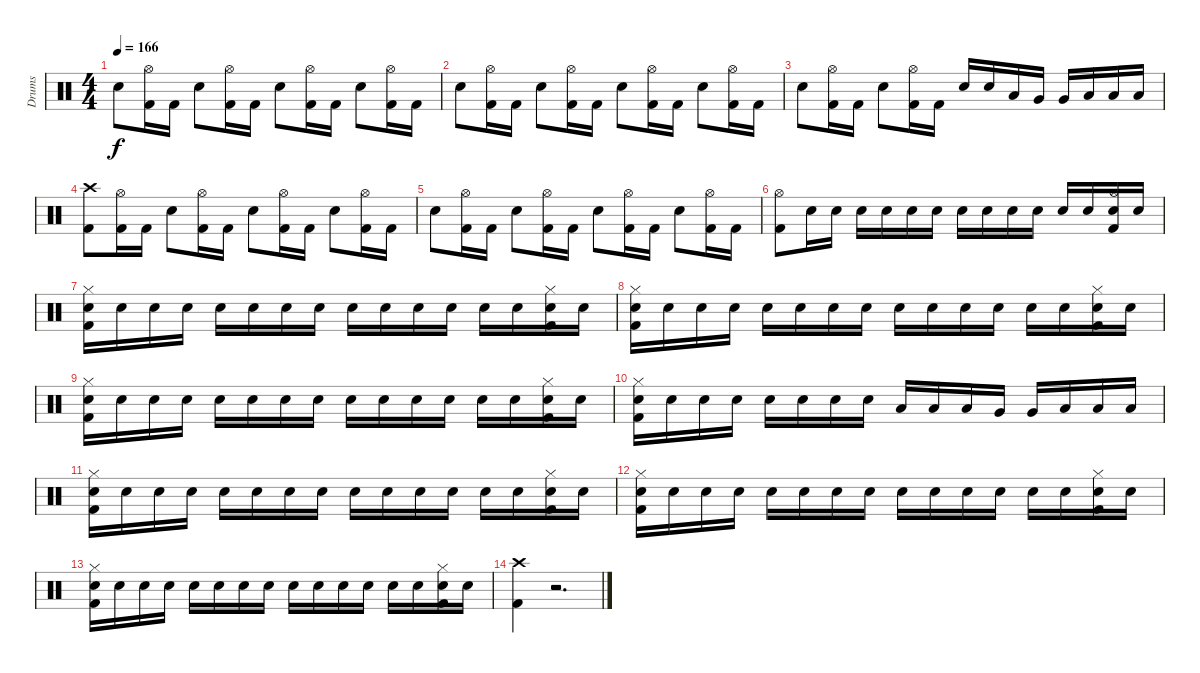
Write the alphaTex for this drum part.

\track ("Drums" "Drums") {instrument percussion}
\staff {score}
\articulation defaults
\ts (4 4)
\tempo 166
\clef neutral
\ks c "Electric Snare (hit)".8{dy f}
("Hi-Hat (open)" "Kick (hit) 2").16 "Kick (hit) 2".16 "Electric Snare (hit)".8 ("Hi-Hat (open)" "Kick (hit) 2").16 "Kick (hit) 2".16 "Electric Snare (hit)".8 ("Hi-Hat (open)" "Kick (hit) 2").16 "Kick (hit) 2".16 "Electric Snare (hit)".8 ("Hi-Hat (open)" "Kick (hit) 2").16 "Kick (hit) 2".16 |
"Electric Snare (hit)".8 ("Hi-Hat (open)" "Kick (hit) 2").16 "Kick (hit) 2".16 "Electric Snare (hit)".8 ("Hi-Hat (open)" "Kick (hit) 2").16 "Kick (hit) 2".16 "Electric Snare (hit)".8 ("Hi-Hat (open)" "Kick (hit) 2").16 "Kick (hit) 2".16 "Electric Snare (hit)".8 ("Hi-Hat (open)" "Kick (hit) 2").16 "Kick (hit) 2".16 |
"Electric Snare (hit)".8 ("Hi-Hat (open)" "Kick (hit) 2").16 "Kick (hit) 2".16 "Electric Snare (hit)".8 ("Hi-Hat (open)" "Kick (hit) 2").16 "Kick (hit) 2".16 "Electric Snare (hit)".16 "Electric Snare (hit)".16 "Low Tom (hit)".16 "Very Low Tom (hit)".16 "Very Low Tom (hit)".16 "Low Floor Tom (hit)".16 "Low Floor Tom (hit)".16 "Low Floor Tom (hit)".16 |
("Crash high (hit)" "Kick (hit) 2").8 ("Hi-Hat (open)" "Kick (hit) 2").16 "Kick (hit) 2".16 "Electric Snare (hit)".8 ("Hi-Hat (open)" "Kick (hit) 2").16 "Kick (hit) 2".16 "Electric Snare (hit)".8 ("Hi-Hat (open)" "Kick (hit) 2").16 "Kick (hit) 2".16 "Electric Snare (hit)".8 ("Hi-Hat (open)" "Kick (hit) 2").16 "Kick (hit) 2".16 |
"Electric Snare (hit)".8 ("Hi-Hat (open)" "Kick (hit) 2").16 "Kick (hit) 2".16 "Electric Snare (hit)".8 ("Hi-Hat (open)" "Kick (hit) 2").16 "Kick (hit) 2".16 "Electric Snare (hit)".8 ("Hi-Hat (open)" "Kick (hit) 2").16 "Kick (hit) 2".16 "Electric Snare (hit)".8 ("Hi-Hat (open)" "Kick (hit) 2").16 "Kick (hit) 2".16 |
("Hi-Hat (open)" "Kick (hit) 2").8 "Electric Snare (hit)".16 "Electric Snare (hit)".16 "Electric Snare (hit)".16 "Electric Snare (hit)".16 "Electric Snare (hit)".16 "Electric Snare (hit)".16 "Electric Snare (hit)".16 "Electric Snare (hit)".16 "Electric Snare (hit)".16 "Electric Snare (hit)".16 "Electric Snare (hit)".16 "Electric Snare (hit)".16 ("Hi-Hat (open)" "Electric Snare (hit)" "Kick (hit) 2").16 "Electric Snare (hit)".16 |
("Hi-Hat (closed)" "Electric Snare (hit)" "Kick (hit) 2").16 "Electric Snare (hit)".16 "Electric Snare (hit)".16 "Electric Snare (hit)".16 "Electric Snare (hit)".16 "Electric Snare (hit)".16 "Electric Snare (hit)".16 "Electric Snare (hit)".16 "Electric Snare (hit)".16 "Electric Snare (hit)".16 "Electric Snare (hit)".16 "Electric Snare (hit)".16 "Electric Snare (hit)".16 "Electric Snare (hit)".16 ("Hi-Hat (closed)" "Electric Snare (hit)" "Kick (hit) 2").16 "Electric Snare (hit)".16 |
("Hi-Hat (closed)" "Electric Snare (hit)" "Kick (hit) 2").16 "Electric Snare (hit)".16 "Electric Snare (hit)".16 "Electric Snare (hit)".16 "Electric Snare (hit)".16 "Electric Snare (hit)".16 "Electric Snare (hit)".16 "Electric Snare (hit)".16 "Electric Snare (hit)".16 "Electric Snare (hit)".16 "Electric Snare (hit)".16 "Electric Snare (hit)".16 "Electric Snare (hit)".16 "Electric Snare (hit)".16 ("Hi-Hat (closed)" "Electric Snare (hit)" "Kick (hit) 2").16 "Electric Snare (hit)".16 |
("Hi-Hat (closed)" "Electric Snare (hit)" "Kick (hit) 2").16 "Electric Snare (hit)".16 "Electric Snare (hit)".16 "Electric Snare (hit)".16 "Electric Snare (hit)".16 "Electric Snare (hit)".16 "Electric Snare (hit)".16 "Electric Snare (hit)".16 "Electric Snare (hit)".16 "Electric Snare (hit)".16 "Electric Snare (hit)".16 "Electric Snare (hit)".16 "Electric Snare (hit)".16 "Electric Snare (hit)".16 ("Hi-Hat (closed)" "Electric Snare (hit)" "Kick (hit) 2").16 "Electric Snare (hit)".16 |
("Hi-Hat (closed)" "Electric Snare (hit)" "Kick (hit) 2").16 "Electric Snare (hit)".16 "Electric Snare (hit)".16 "Electric Snare (hit)".16 "Electric Snare (hit)".16 "Electric Snare (hit)".16 "Electric Snare (hit)".16 "Electric Snare (hit)".16 "Low Tom (hit)".16 "Low Tom (hit)".16 "Low Tom (hit)".16 "Very Low Tom (hit)".16 "Very Low Tom (hit)".16 "Low Floor Tom (hit)".16 "Low Floor Tom (hit)".16 "Low Floor Tom (hit)".16 |
("Hi-Hat (closed)" "Electric Snare (hit)" "Kick (hit) 2").16 "Electric Snare (hit)".16 "Electric Snare (hit)".16 "Electric Snare (hit)".16 "Electric Snare (hit)".16 "Electric Snare (hit)".16 "Electric Snare (hit)".16 "Electric Snare (hit)".16 "Electric Snare (hit)".16 "Electric Snare (hit)".16 "Electric Snare (hit)".16 "Electric Snare (hit)".16 "Electric Snare (hit)".16 "Electric Snare (hit)".16 ("Hi-Hat (closed)" "Electric Snare (hit)" "Kick (hit) 2").16 "Electric Snare (hit)".16 |
("Hi-Hat (closed)" "Electric Snare (hit)" "Kick (hit) 2").16 "Electric Snare (hit)".16 "Electric Snare (hit)".16 "Electric Snare (hit)".16 "Electric Snare (hit)".16 "Electric Snare (hit)".16 "Electric Snare (hit)".16 "Electric Snare (hit)".16 "Electric Snare (hit)".16 "Electric Snare (hit)".16 "Electric Snare (hit)".16 "Electric Snare (hit)".16 "Electric Snare (hit)".16 "Electric Snare (hit)".16 ("Hi-Hat (closed)" "Electric Snare (hit)" "Kick (hit) 2").16 "Electric Snare (hit)".16 |
("Hi-Hat (closed)" "Electric Snare (hit)" "Kick (hit) 2").16 "Electric Snare (hit)".16 "Electric Snare (hit)".16 "Electric Snare (hit)".16 "Electric Snare (hit)".16 "Electric Snare (hit)".16 "Electric Snare (hit)".16 "Electric Snare (hit)".16 "Electric Snare (hit)".16 "Electric Snare (hit)".16 "Electric Snare (hit)".16 "Electric Snare (hit)".16 "Electric Snare (hit)".16 "Electric Snare (hit)".16 ("Hi-Hat (closed)" "Electric Snare (hit)" "Kick (hit) 2").16 "Electric Snare (hit)".16 |
("Crash high (hit)" "Kick (hit) 2").4 r.2{d}
